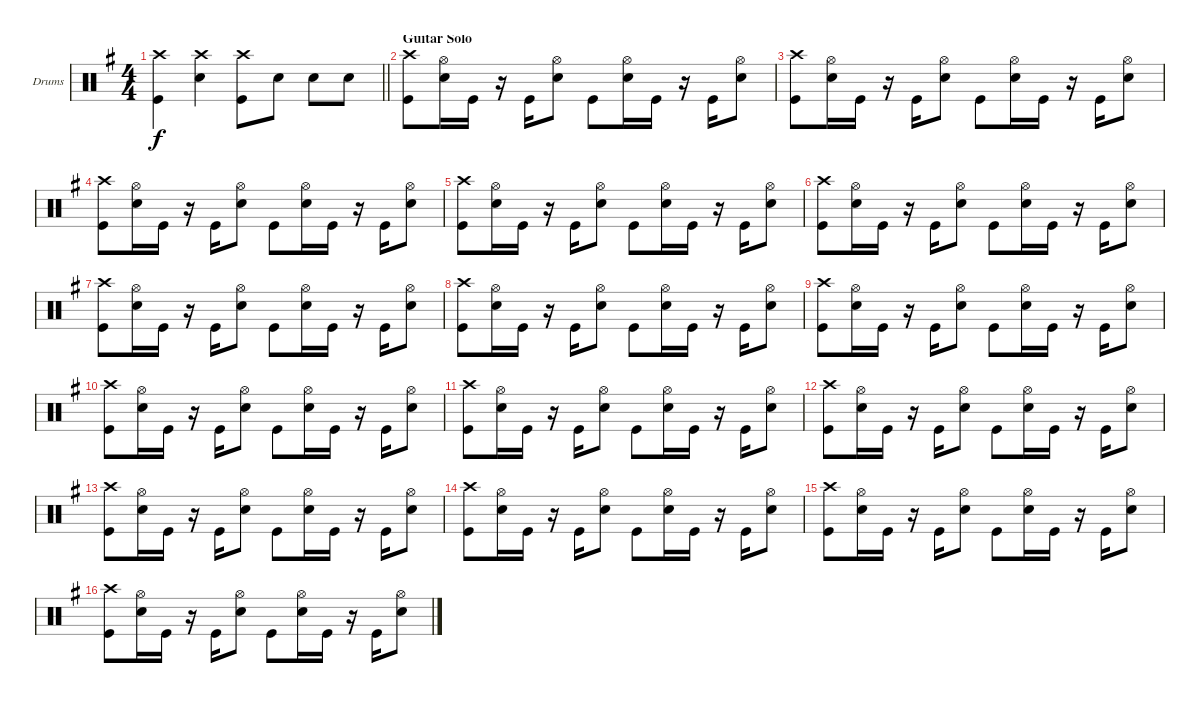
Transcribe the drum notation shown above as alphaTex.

\defaultSystemsLayout 4
\bracketExtendMode groupsimilarinstruments
\firstSystemTrackNameOrientation horizontal
\otherSystemsTrackNameOrientation horizontal
\track ("Drums" "Drums") {instrument percussion}
\staff {score}
\articulation defaults
\ts (4 4)
\tempo (188 hide)
\clef neutral
\barLineRight lightlight
\ks g
("Kick (hit)" "Crash high (hit)").4{dy f} ("Snare (hit) 2" "Crash high (hit)").4 ("Kick (hit)" "Crash high (hit)").8 "Snare (hit) 2".8 "Snare (hit) 2".8 "Snare (hit) 2".8 |
\section ("" "Guitar Solo")
("Kick (hit)" "Crash high (hit)").8 ("Snare (hit) 2" "Hi-Hat (open)").16 "Kick (hit)".16 r.16 "Kick (hit)".16 ("Snare (hit) 2" "Hi-Hat (open)").8 "Kick (hit)".8 ("Snare (hit) 2" "Hi-Hat (open)").16 "Kick (hit)".16 r.16 "Kick (hit)".16 ("Snare (hit) 2" "Hi-Hat (open)").8 |
("Kick (hit)" "Crash high (hit)").8 ("Snare (hit) 2" "Hi-Hat (open)").16 "Kick (hit)".16 r.16 "Kick (hit)".16 ("Snare (hit) 2" "Hi-Hat (open)").8 "Kick (hit)".8 ("Snare (hit) 2" "Hi-Hat (open)").16 "Kick (hit)".16 r.16 "Kick (hit)".16 ("Snare (hit) 2" "Hi-Hat (open)").8 |
("Kick (hit)" "Crash high (hit)").8 ("Snare (hit) 2" "Hi-Hat (open)").16 "Kick (hit)".16 r.16 "Kick (hit)".16 ("Snare (hit) 2" "Hi-Hat (open)").8 "Kick (hit)".8 ("Snare (hit) 2" "Hi-Hat (open)").16 "Kick (hit)".16 r.16 "Kick (hit)".16 ("Snare (hit) 2" "Hi-Hat (open)").8 |
("Kick (hit)" "Crash high (hit)").8 ("Snare (hit) 2" "Hi-Hat (open)").16 "Kick (hit)".16 r.16 "Kick (hit)".16 ("Snare (hit) 2" "Hi-Hat (open)").8 "Kick (hit)".8 ("Snare (hit) 2" "Hi-Hat (open)").16 "Kick (hit)".16 r.16 "Kick (hit)".16 ("Snare (hit) 2" "Hi-Hat (open)").8 |
("Kick (hit)" "Crash high (hit)").8 ("Snare (hit) 2" "Hi-Hat (open)").16 "Kick (hit)".16 r.16 "Kick (hit)".16 ("Snare (hit) 2" "Hi-Hat (open)").8 "Kick (hit)".8 ("Snare (hit) 2" "Hi-Hat (open)").16 "Kick (hit)".16 r.16 "Kick (hit)".16 ("Snare (hit) 2" "Hi-Hat (open)").8 |
("Kick (hit)" "Crash high (hit)").8 ("Snare (hit) 2" "Hi-Hat (open)").16 "Kick (hit)".16 r.16 "Kick (hit)".16 ("Snare (hit) 2" "Hi-Hat (open)").8 "Kick (hit)".8 ("Snare (hit) 2" "Hi-Hat (open)").16 "Kick (hit)".16 r.16 "Kick (hit)".16 ("Snare (hit) 2" "Hi-Hat (open)").8 |
("Kick (hit)" "Crash high (hit)").8 ("Snare (hit) 2" "Hi-Hat (open)").16 "Kick (hit)".16 r.16 "Kick (hit)".16 ("Snare (hit) 2" "Hi-Hat (open)").8 "Kick (hit)".8 ("Snare (hit) 2" "Hi-Hat (open)").16 "Kick (hit)".16 r.16 "Kick (hit)".16 ("Snare (hit) 2" "Hi-Hat (open)").8 |
("Kick (hit)" "Crash high (hit)").8 ("Snare (hit) 2" "Hi-Hat (open)").16 "Kick (hit)".16 r.16 "Kick (hit)".16 ("Snare (hit) 2" "Hi-Hat (open)").8 "Kick (hit)".8 ("Snare (hit) 2" "Hi-Hat (open)").16 "Kick (hit)".16 r.16 "Kick (hit)".16 ("Snare (hit) 2" "Hi-Hat (open)").8 |
("Kick (hit)" "Crash high (hit)").8 ("Snare (hit) 2" "Hi-Hat (open)").16 "Kick (hit)".16 r.16 "Kick (hit)".16 ("Snare (hit) 2" "Hi-Hat (open)").8 "Kick (hit)".8 ("Snare (hit) 2" "Hi-Hat (open)").16 "Kick (hit)".16 r.16 "Kick (hit)".16 ("Snare (hit) 2" "Hi-Hat (open)").8 |
("Kick (hit)" "Crash high (hit)").8 ("Snare (hit) 2" "Hi-Hat (open)").16 "Kick (hit)".16 r.16 "Kick (hit)".16 ("Snare (hit) 2" "Hi-Hat (open)").8 "Kick (hit)".8 ("Snare (hit) 2" "Hi-Hat (open)").16 "Kick (hit)".16 r.16 "Kick (hit)".16 ("Snare (hit) 2" "Hi-Hat (open)").8 |
("Kick (hit)" "Crash high (hit)").8 ("Snare (hit) 2" "Hi-Hat (open)").16 "Kick (hit)".16 r.16 "Kick (hit)".16 ("Snare (hit) 2" "Hi-Hat (open)").8 "Kick (hit)".8 ("Snare (hit) 2" "Hi-Hat (open)").16 "Kick (hit)".16 r.16 "Kick (hit)".16 ("Snare (hit) 2" "Hi-Hat (open)").8 |
("Kick (hit)" "Crash high (hit)").8 ("Snare (hit) 2" "Hi-Hat (open)").16 "Kick (hit)".16 r.16 "Kick (hit)".16 ("Snare (hit) 2" "Hi-Hat (open)").8 "Kick (hit)".8 ("Snare (hit) 2" "Hi-Hat (open)").16 "Kick (hit)".16 r.16 "Kick (hit)".16 ("Snare (hit) 2" "Hi-Hat (open)").8 |
("Kick (hit)" "Crash high (hit)").8 ("Snare (hit) 2" "Hi-Hat (open)").16 "Kick (hit)".16 r.16 "Kick (hit)".16 ("Snare (hit) 2" "Hi-Hat (open)").8 "Kick (hit)".8 ("Snare (hit) 2" "Hi-Hat (open)").16 "Kick (hit)".16 r.16 "Kick (hit)".16 ("Snare (hit) 2" "Hi-Hat (open)").8 |
("Kick (hit)" "Crash high (hit)").8 ("Snare (hit) 2" "Hi-Hat (open)").16 "Kick (hit)".16 r.16 "Kick (hit)".16 ("Snare (hit) 2" "Hi-Hat (open)").8 "Kick (hit)".8 ("Snare (hit) 2" "Hi-Hat (open)").16 "Kick (hit)".16 r.16 "Kick (hit)".16 ("Snare (hit) 2" "Hi-Hat (open)").8 |
("Kick (hit)" "Crash high (hit)").8 ("Snare (hit) 2" "Hi-Hat (open)").16 "Kick (hit)".16 r.16 "Kick (hit)".16 ("Snare (hit) 2" "Hi-Hat (open)").8 "Kick (hit)".8 ("Snare (hit) 2" "Hi-Hat (open)").16 "Kick (hit)".16 r.16 "Kick (hit)".16 ("Snare (hit) 2" "Hi-Hat (open)").8
